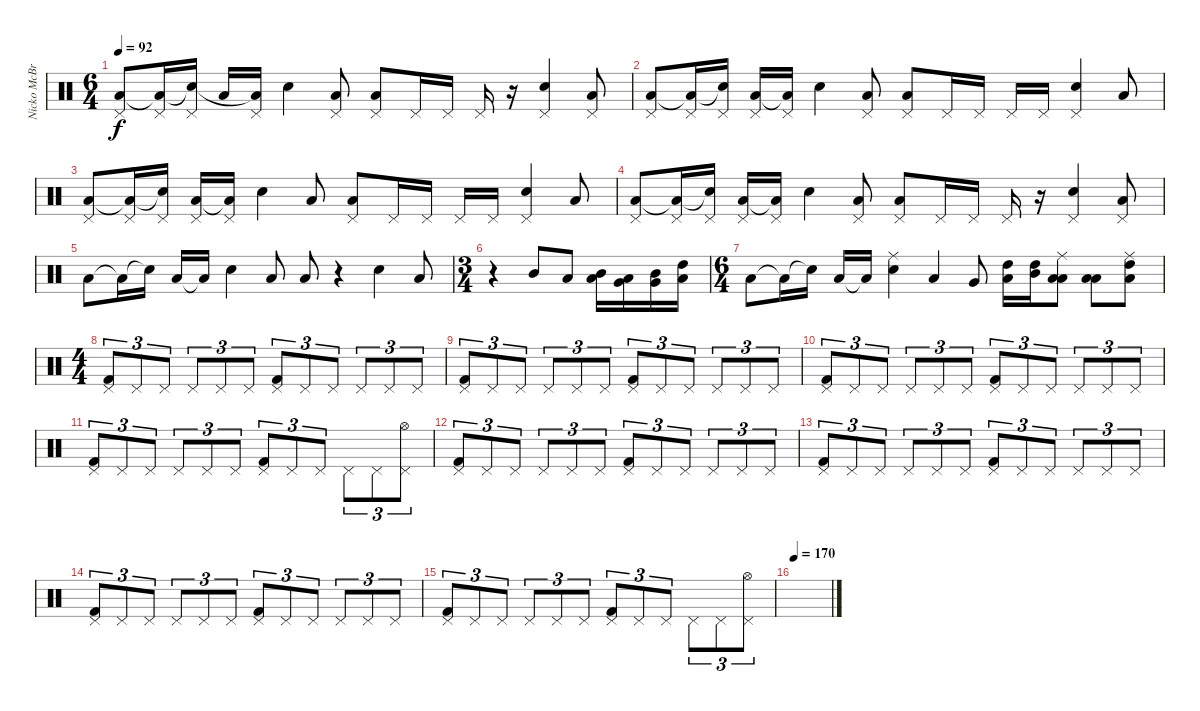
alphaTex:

\track ("Nicko McBrain" "Nicko McBr") {instrument percussion}
\staff {score}
\articulation defaults
\ts (6 4)
\tempo 92
\clef neutral
\ks c
("Pedal Hi-Hat (hit)" "Low Floor Tom (hit)").8{dy f} ("Pedal Hi-Hat (hit)" "Low Floor Tom (hit)"{t}).16 ("Pedal Hi-Hat (hit)" "Electric Snare (hit)"{t}).16 "Low Floor Tom (hit)".16 ("Pedal Hi-Hat (hit)" "Low Floor Tom (hit)"{t}).16 "Electric Snare (hit)".4 ("Pedal Hi-Hat (hit)" "Low Floor Tom (hit)").8 ("Pedal Hi-Hat (hit)" "Low Floor Tom (hit)").8 "Pedal Hi-Hat (hit)".16 "Pedal Hi-Hat (hit)".16 "Pedal Hi-Hat (hit)".16 r.16 ("Pedal Hi-Hat (hit)" "Electric Snare (hit)").4 ("Pedal Hi-Hat (hit)" "Low Floor Tom (hit)").8 |
("Pedal Hi-Hat (hit)" "Low Floor Tom (hit)").8 ("Pedal Hi-Hat (hit)" "Low Floor Tom (hit)"{t}).16 ("Pedal Hi-Hat (hit)" "Electric Snare (hit)"{t}).16 ("Pedal Hi-Hat (hit)" "Low Floor Tom (hit)").16 ("Pedal Hi-Hat (hit)" "Low Floor Tom (hit)"{t}).16 "Electric Snare (hit)".4 ("Pedal Hi-Hat (hit)" "Low Floor Tom (hit)").8 ("Pedal Hi-Hat (hit)" "Low Floor Tom (hit)").8 "Pedal Hi-Hat (hit)".16 "Pedal Hi-Hat (hit)".16 "Pedal Hi-Hat (hit)".16 "Pedal Hi-Hat (hit)".16 ("Pedal Hi-Hat (hit)" "Electric Snare (hit)").4 "Low Floor Tom (hit)".8 |
("Pedal Hi-Hat (hit)" "Low Floor Tom (hit)").8 ("Pedal Hi-Hat (hit)" "Low Floor Tom (hit)"{t}).16 ("Pedal Hi-Hat (hit)" "Electric Snare (hit)"{t}).16 ("Pedal Hi-Hat (hit)" "Low Floor Tom (hit)").16 ("Pedal Hi-Hat (hit)" "Low Floor Tom (hit)"{t}).16 "Electric Snare (hit)".4 "Low Floor Tom (hit)".8 ("Pedal Hi-Hat (hit)" "Low Floor Tom (hit)").8 "Pedal Hi-Hat (hit)".16 "Pedal Hi-Hat (hit)".16 "Pedal Hi-Hat (hit)".16 "Pedal Hi-Hat (hit)".16 ("Pedal Hi-Hat (hit)" "Electric Snare (hit)").4 "Low Floor Tom (hit)".8 |
("Pedal Hi-Hat (hit)" "Low Floor Tom (hit)").8 ("Pedal Hi-Hat (hit)" "Low Floor Tom (hit)"{t}).16 ("Pedal Hi-Hat (hit)" "Electric Snare (hit)"{t}).16 ("Pedal Hi-Hat (hit)" "Low Floor Tom (hit)").16 ("Pedal Hi-Hat (hit)" "Low Floor Tom (hit)"{t}).16 "Electric Snare (hit)".4 ("Pedal Hi-Hat (hit)" "Low Floor Tom (hit)").8 ("Pedal Hi-Hat (hit)" "Low Floor Tom (hit)").8 "Pedal Hi-Hat (hit)".16 "Pedal Hi-Hat (hit)".16 "Pedal Hi-Hat (hit)".16 r.16 ("Pedal Hi-Hat (hit)" "Electric Snare (hit)").4 ("Pedal Hi-Hat (hit)" "Low Floor Tom (hit)").8 |
"Low Floor Tom (hit)".8 "Low Floor Tom (hit)"{t}.16 "Electric Snare (hit)"{t}.16 "Low Floor Tom (hit)".16 "Low Floor Tom (hit)"{t}.16 "Electric Snare (hit)".4 "Low Floor Tom (hit)".8 "Low Floor Tom (hit)".8 r.4 "Electric Snare (hit)".4 "Low Floor Tom (hit)".8 |
\ts (3 4)
r.4 "Mid Tom (hit)".8 "Low Tom (hit)".8 ("Mid Tom (hit)" "Low Tom (hit)").16 ("Low Tom (hit)" "Very Low Tom (hit)").16 ("Very Low Tom (hit)" "Mid Tom (hit)").16 ("High Tom (hit)" "Low Floor Tom (hit)").16 |
\ts (6 4)
"Low Floor Tom (hit)".8 "Low Floor Tom (hit)"{t}.16 "Electric Snare (hit)"{t}.16 "Low Floor Tom (hit)".16 "Low Floor Tom (hit)"{t}.16 ("Ride (middle)" "Electric Snare (hit)").4 "Low Floor Tom (hit)".4 "Very Low Tom (hit)".8 ("High Tom (hit)" "Low Floor Tom (hit)").16 ("High Tom (hit)" "Mid Tom (hit)").16 ("Low Tom (hit)" "Low Tom (hit)" "Ride (middle)").8 ("Low Floor Tom (hit)" "Low Tom (hit)").8 ("High Tom (hit)" "Low Tom (hit)" "Ride (middle)").8 |
\ts (4 4)
("Pedal Hi-Hat (hit)" "Kick (hit) 2").8{tu (3 2)} "Pedal Hi-Hat (hit)".8{tu (3 2)} "Pedal Hi-Hat (hit)".8{tu (3 2)} "Pedal Hi-Hat (hit)".8{tu (3 2)} "Pedal Hi-Hat (hit)".8{tu (3 2)} "Pedal Hi-Hat (hit)".8{tu (3 2)} ("Pedal Hi-Hat (hit)" "Kick (hit) 2").8{tu (3 2)} "Pedal Hi-Hat (hit)".8{tu (3 2)} "Pedal Hi-Hat (hit)".8{tu (3 2)} "Pedal Hi-Hat (hit)".8{tu (3 2)} "Pedal Hi-Hat (hit)".8{tu (3 2)} "Pedal Hi-Hat (hit)".8{tu (3 2)} |
("Pedal Hi-Hat (hit)" "Kick (hit) 2").8{tu (3 2)} "Pedal Hi-Hat (hit)".8{tu (3 2)} "Pedal Hi-Hat (hit)".8{tu (3 2)} "Pedal Hi-Hat (hit)".8{tu (3 2)} "Pedal Hi-Hat (hit)".8{tu (3 2)} "Pedal Hi-Hat (hit)".8{tu (3 2)} ("Pedal Hi-Hat (hit)" "Kick (hit) 2").8{tu (3 2)} "Pedal Hi-Hat (hit)".8{tu (3 2)} "Pedal Hi-Hat (hit)".8{tu (3 2)} "Pedal Hi-Hat (hit)".8{tu (3 2)} "Pedal Hi-Hat (hit)".8{tu (3 2)} "Pedal Hi-Hat (hit)".8{tu (3 2)} |
("Pedal Hi-Hat (hit)" "Kick (hit) 2").8{tu (3 2)} "Pedal Hi-Hat (hit)".8{tu (3 2)} "Pedal Hi-Hat (hit)".8{tu (3 2)} "Pedal Hi-Hat (hit)".8{tu (3 2)} "Pedal Hi-Hat (hit)".8{tu (3 2)} "Pedal Hi-Hat (hit)".8{tu (3 2)} ("Pedal Hi-Hat (hit)" "Kick (hit) 2").8{tu (3 2)} "Pedal Hi-Hat (hit)".8{tu (3 2)} "Pedal Hi-Hat (hit)".8{tu (3 2)} "Pedal Hi-Hat (hit)".8{tu (3 2)} "Pedal Hi-Hat (hit)".8{tu (3 2)} "Pedal Hi-Hat (hit)".8{tu (3 2)} |
("Pedal Hi-Hat (hit)" "Kick (hit) 2").8{tu (3 2)} "Pedal Hi-Hat (hit)".8{tu (3 2)} "Pedal Hi-Hat (hit)".8{tu (3 2)} "Pedal Hi-Hat (hit)".8{tu (3 2)} "Pedal Hi-Hat (hit)".8{tu (3 2)} "Pedal Hi-Hat (hit)".8{tu (3 2)} ("Pedal Hi-Hat (hit)" "Kick (hit) 2").8{tu (3 2)} "Pedal Hi-Hat (hit)".8{tu (3 2)} "Pedal Hi-Hat (hit)".8{tu (3 2)} "Pedal Hi-Hat (hit)".8{tu (3 2)} "Pedal Hi-Hat (hit)".8{tu (3 2)} ("Pedal Hi-Hat (hit)" "Hi-Hat (open)").8{tu (3 2)} |
("Pedal Hi-Hat (hit)" "Kick (hit) 2").8{tu (3 2)} "Pedal Hi-Hat (hit)".8{tu (3 2)} "Pedal Hi-Hat (hit)".8{tu (3 2)} "Pedal Hi-Hat (hit)".8{tu (3 2)} "Pedal Hi-Hat (hit)".8{tu (3 2)} "Pedal Hi-Hat (hit)".8{tu (3 2)} ("Pedal Hi-Hat (hit)" "Kick (hit) 2").8{tu (3 2)} "Pedal Hi-Hat (hit)".8{tu (3 2)} "Pedal Hi-Hat (hit)".8{tu (3 2)} "Pedal Hi-Hat (hit)".8{tu (3 2)} "Pedal Hi-Hat (hit)".8{tu (3 2)} "Pedal Hi-Hat (hit)".8{tu (3 2)} |
("Pedal Hi-Hat (hit)" "Kick (hit) 2").8{tu (3 2)} "Pedal Hi-Hat (hit)".8{tu (3 2)} "Pedal Hi-Hat (hit)".8{tu (3 2)} "Pedal Hi-Hat (hit)".8{tu (3 2)} "Pedal Hi-Hat (hit)".8{tu (3 2)} "Pedal Hi-Hat (hit)".8{tu (3 2)} ("Pedal Hi-Hat (hit)" "Kick (hit) 2").8{tu (3 2)} "Pedal Hi-Hat (hit)".8{tu (3 2)} "Pedal Hi-Hat (hit)".8{tu (3 2)} "Pedal Hi-Hat (hit)".8{tu (3 2)} "Pedal Hi-Hat (hit)".8{tu (3 2)} "Pedal Hi-Hat (hit)".8{tu (3 2)} |
("Pedal Hi-Hat (hit)" "Kick (hit) 2").8{tu (3 2)} "Pedal Hi-Hat (hit)".8{tu (3 2)} "Pedal Hi-Hat (hit)".8{tu (3 2)} "Pedal Hi-Hat (hit)".8{tu (3 2)} "Pedal Hi-Hat (hit)".8{tu (3 2)} "Pedal Hi-Hat (hit)".8{tu (3 2)} ("Pedal Hi-Hat (hit)" "Kick (hit) 2").8{tu (3 2)} "Pedal Hi-Hat (hit)".8{tu (3 2)} "Pedal Hi-Hat (hit)".8{tu (3 2)} "Pedal Hi-Hat (hit)".8{tu (3 2)} "Pedal Hi-Hat (hit)".8{tu (3 2)} "Pedal Hi-Hat (hit)".8{tu (3 2)} |
("Pedal Hi-Hat (hit)" "Kick (hit) 2").8{tu (3 2)} "Pedal Hi-Hat (hit)".8{tu (3 2)} "Pedal Hi-Hat (hit)".8{tu (3 2)} "Pedal Hi-Hat (hit)".8{tu (3 2)} "Pedal Hi-Hat (hit)".8{tu (3 2)} "Pedal Hi-Hat (hit)".8{tu (3 2)} ("Pedal Hi-Hat (hit)" "Kick (hit) 2").8{tu (3 2)} "Pedal Hi-Hat (hit)".8{tu (3 2)} "Pedal Hi-Hat (hit)".8{tu (3 2)} "Pedal Hi-Hat (hit)".8{tu (3 2)} "Pedal Hi-Hat (hit)".8{tu (3 2)} ("Pedal Hi-Hat (hit)" "Hi-Hat (open)").8{tu (3 2)} |
\tempo 170
